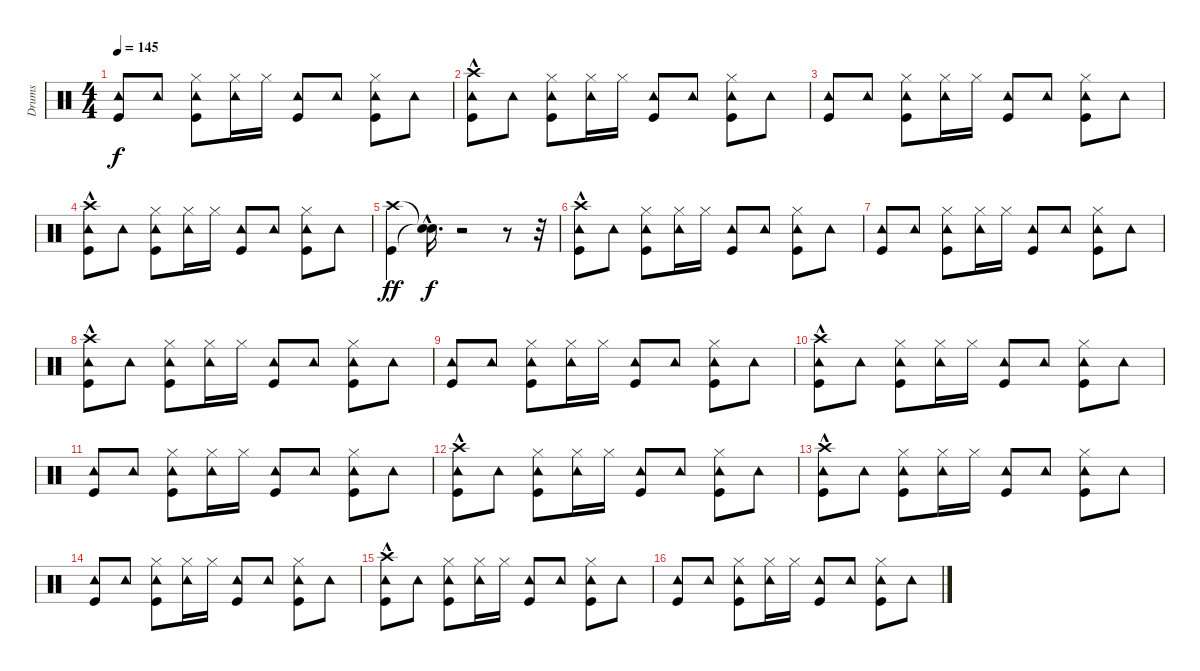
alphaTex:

\track ("Drums" "Drums") {instrument percussion}
\staff {score}
\articulation defaults
\ts (4 4)
\tempo 145
\clef neutral
\ks c
("Tambourine (hit)" "Kick (hit)").8{dy f} "Tambourine (hit)".8 ("Tambourine (hit)" "Hi-Hat (closed)" "Kick (hit)").8 ("Tambourine (hit)" "Hi-Hat (closed)").16 "Hi-Hat (closed)".16 ("Tambourine (hit)" "Kick (hit)").8 "Tambourine (hit)".8 ("Kick (hit)" "Hi-Hat (closed)" "Tambourine (hit)").8 "Tambourine (hit)".8 |
("Tambourine (hit)" "Kick (hit)" "Crash high (hit)"{hac}).8 "Tambourine (hit)".8 ("Tambourine (hit)" "Hi-Hat (closed)" "Kick (hit)").8 ("Hi-Hat (closed)" "Tambourine (hit)").16 "Hi-Hat (closed)".16 ("Kick (hit)" "Tambourine (hit)").8 "Tambourine (hit)".8 ("Tambourine (hit)" "Hi-Hat (closed)" "Kick (hit)").8 "Tambourine (hit)".8 |
("Tambourine (hit)" "Kick (hit)").8 "Tambourine (hit)".8 ("Tambourine (hit)" "Hi-Hat (closed)" "Kick (hit)").8 ("Tambourine (hit)" "Hi-Hat (closed)").16 "Hi-Hat (closed)".16 ("Tambourine (hit)" "Kick (hit)").8 "Tambourine (hit)".8 ("Kick (hit)" "Hi-Hat (closed)" "Tambourine (hit)").8 "Tambourine (hit)".8 |
("Tambourine (hit)" "Kick (hit)" "Crash high (hit)"{hac}).8 "Tambourine (hit)".8 ("Tambourine (hit)" "Hi-Hat (closed)" "Kick (hit)").8 ("Hi-Hat (closed)" "Tambourine (hit)").16 "Hi-Hat (closed)".16 ("Kick (hit)" "Tambourine (hit)").8 "Tambourine (hit)".8 ("Tambourine (hit)" "Hi-Hat (closed)" "Kick (hit)").8 "Tambourine (hit)".8 |
("Crash high (hit)" "Kick (hit)").4{dy ff} ("Snare (hit)"{hac t} "Snare (hit)"{hac t}).16{d dy f} r.2 r.8 r.32 |
("Tambourine (hit)" "Kick (hit)" "Crash high (hit)"{hac}).8 "Tambourine (hit)".8 ("Hi-Hat (closed)" "Kick (hit)" "Tambourine (hit)").8 ("Tambourine (hit)" "Hi-Hat (closed)").16 "Hi-Hat (closed)".16 ("Tambourine (hit)" "Kick (hit)").8 "Tambourine (hit)".8 ("Kick (hit)" "Tambourine (hit)" "Hi-Hat (closed)").8 "Tambourine (hit)".8 |
("Tambourine (hit)" "Kick (hit)").8 "Tambourine (hit)".8 ("Tambourine (hit)" "Hi-Hat (closed)" "Kick (hit)").8 ("Hi-Hat (closed)" "Tambourine (hit)").16 "Hi-Hat (closed)".16 ("Kick (hit)" "Tambourine (hit)").8 "Tambourine (hit)".8 ("Hi-Hat (closed)" "Kick (hit)" "Tambourine (hit)").8 "Tambourine (hit)".8 |
("Kick (hit)" "Crash high (hit)"{hac} "Tambourine (hit)").8 "Tambourine (hit)".8 ("Tambourine (hit)" "Hi-Hat (closed)" "Kick (hit)").8 ("Tambourine (hit)" "Hi-Hat (closed)").16 "Hi-Hat (closed)".16 ("Tambourine (hit)" "Kick (hit)").8 "Tambourine (hit)".8 ("Tambourine (hit)" "Hi-Hat (closed)" "Kick (hit)").8 "Tambourine (hit)".8 |
("Tambourine (hit)" "Kick (hit)").8 "Tambourine (hit)".8 ("Kick (hit)" "Tambourine (hit)" "Hi-Hat (closed)").8 ("Tambourine (hit)" "Hi-Hat (closed)").16 "Hi-Hat (closed)".16 ("Tambourine (hit)" "Kick (hit)").8 "Tambourine (hit)".8 ("Tambourine (hit)" "Hi-Hat (closed)" "Kick (hit)").8 "Tambourine (hit)".8 |
("Tambourine (hit)" "Kick (hit)" "Crash high (hit)"{hac}).8 "Tambourine (hit)".8 ("Tambourine (hit)" "Hi-Hat (closed)" "Kick (hit)").8 ("Hi-Hat (closed)" "Tambourine (hit)").16 "Hi-Hat (closed)".16 ("Kick (hit)" "Tambourine (hit)").8 "Tambourine (hit)".8 ("Kick (hit)" "Tambourine (hit)" "Hi-Hat (closed)").8 "Tambourine (hit)".8 |
("Tambourine (hit)" "Kick (hit)").8 "Tambourine (hit)".8 ("Tambourine (hit)" "Hi-Hat (closed)" "Kick (hit)").8 ("Tambourine (hit)" "Hi-Hat (closed)").16 "Hi-Hat (closed)".16 ("Tambourine (hit)" "Kick (hit)").8 "Tambourine (hit)".8 ("Hi-Hat (closed)" "Kick (hit)" "Tambourine (hit)").8 "Tambourine (hit)".8 |
("Crash high (hit)"{hac} "Tambourine (hit)" "Kick (hit)").8 "Tambourine (hit)".8 ("Kick (hit)" "Tambourine (hit)" "Hi-Hat (closed)").8 ("Tambourine (hit)" "Hi-Hat (closed)").16 "Hi-Hat (closed)".16 ("Tambourine (hit)" "Kick (hit)").8 "Tambourine (hit)".8 ("Tambourine (hit)" "Hi-Hat (closed)" "Kick (hit)").8 "Tambourine (hit)".8 |
("Tambourine (hit)" "Kick (hit)" "Crash high (hit)"{hac}).8 "Tambourine (hit)".8 ("Hi-Hat (closed)" "Kick (hit)" "Tambourine (hit)").8 ("Tambourine (hit)" "Hi-Hat (closed)").16 "Hi-Hat (closed)".16 ("Tambourine (hit)" "Kick (hit)").8 "Tambourine (hit)".8 ("Tambourine (hit)" "Hi-Hat (closed)" "Kick (hit)").8 "Tambourine (hit)".8 |
("Tambourine (hit)" "Kick (hit)").8 "Tambourine (hit)".8 ("Tambourine (hit)" "Hi-Hat (closed)" "Kick (hit)").8 ("Hi-Hat (closed)" "Tambourine (hit)").16 "Hi-Hat (closed)".16 ("Kick (hit)" "Tambourine (hit)").8 "Tambourine (hit)".8 ("Hi-Hat (closed)" "Kick (hit)" "Tambourine (hit)").8 "Tambourine (hit)".8 |
("Crash high (hit)"{hac} "Tambourine (hit)" "Kick (hit)").8 "Tambourine (hit)".8 ("Tambourine (hit)" "Hi-Hat (closed)" "Kick (hit)").8 ("Tambourine (hit)" "Hi-Hat (closed)").16 "Hi-Hat (closed)".16 ("Tambourine (hit)" "Kick (hit)").8 "Tambourine (hit)".8 ("Hi-Hat (closed)" "Kick (hit)" "Tambourine (hit)").8 "Tambourine (hit)".8 |
("Tambourine (hit)" "Kick (hit)").8 "Tambourine (hit)".8 ("Kick (hit)" "Tambourine (hit)" "Hi-Hat (closed)").8 ("Tambourine (hit)" "Hi-Hat (closed)").16 "Hi-Hat (closed)".16 ("Tambourine (hit)" "Kick (hit)").8 "Tambourine (hit)".8 ("Kick (hit)" "Tambourine (hit)" "Hi-Hat (closed)").8 "Tambourine (hit)".8
